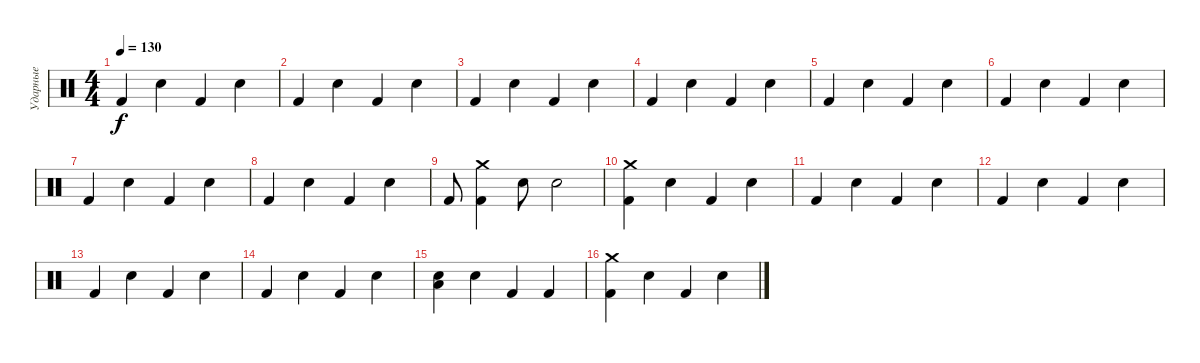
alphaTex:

\track ("Ударные" "Ударные") {instrument percussion}
\staff {score}
\articulation defaults
\ts (4 4)
\tempo 130
\clef neutral
\ks c "Kick (hit) 2".4{dy f} "Snare (hit) 2".4 "Kick (hit) 2".4 "Snare (hit) 2".4
|
"Kick (hit) 2".4 "Snare (hit) 2".4 "Kick (hit) 2".4 "Snare (hit) 2".4 |
"Kick (hit) 2".4 "Snare (hit) 2".4 "Kick (hit) 2".4 "Snare (hit) 2".4 |
"Kick (hit) 2".4 "Snare (hit) 2".4 "Kick (hit) 2".4 "Snare (hit) 2".4 |
"Kick (hit) 2".4 "Snare (hit) 2".4 "Kick (hit) 2".4 "Snare (hit) 2".4 |
"Kick (hit) 2".4 "Snare (hit) 2".4 "Kick (hit) 2".4 "Snare (hit) 2".4 |
"Kick (hit) 2".4 "Snare (hit) 2".4 "Kick (hit) 2".4 "Snare (hit) 2".4 |
"Kick (hit) 2".4 "Snare (hit) 2".4 "Kick (hit) 2".4 "Snare (hit) 2".4 |
"Kick (hit) 2".8 ("Kick (hit) 2" "Crash medium (hit)").4 "Snare (hit) 2".8 "Snare (hit) 2".2 |
("Kick (hit) 2" "Crash medium (hit)").4 "Snare (hit) 2".4 "Kick (hit) 2".4 "Snare (hit) 2".4 |
"Kick (hit) 2".4 "Snare (hit) 2".4 "Kick (hit) 2".4 "Snare (hit) 2".4 |
"Kick (hit) 2".4 "Snare (hit) 2".4 "Kick (hit) 2".4 "Snare (hit) 2".4 |
"Kick (hit) 2".4 "Snare (hit) 2".4 "Kick (hit) 2".4 "Snare (hit) 2".4 |
"Kick (hit) 2".4 "Snare (hit) 2".4 "Kick (hit) 2".4 "Snare (hit) 2".4 |
("Electric Snare (hit)" "Low Floor Tom (hit)").4 "Snare (hit) 2".4 "Kick (hit) 2".4 "Kick (hit) 2".4 |
("Kick (hit) 2" "Crash medium (hit)").4 "Snare (hit) 2".4 "Kick (hit) 2".4 "Snare (hit) 2".4
